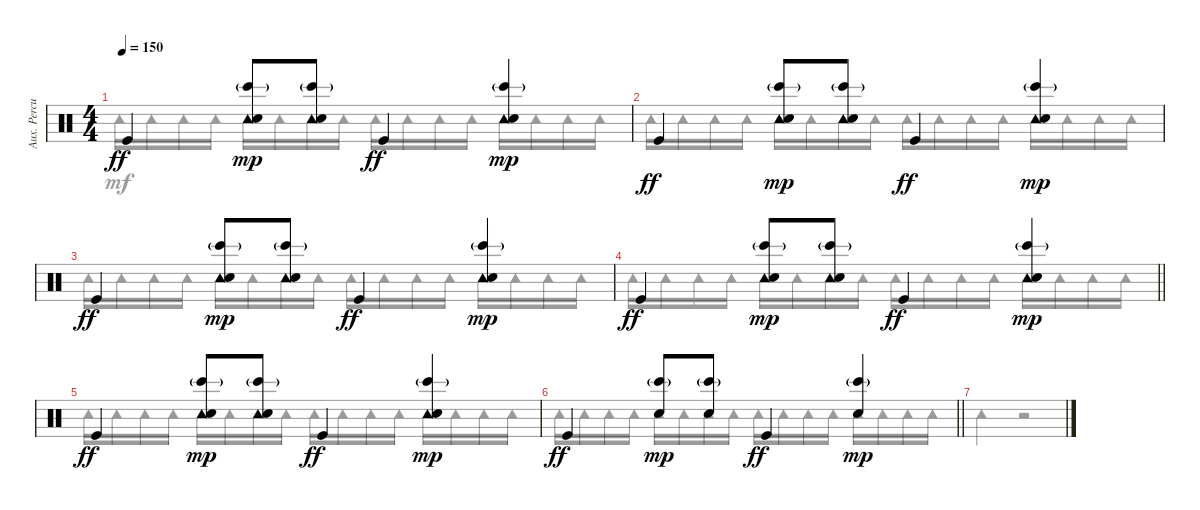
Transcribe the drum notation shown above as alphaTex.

\track ("Aux. Percussion" "Aux. Percu") {instrument percussion}
\staff {score}
\articulation defaults
\voice
\ts (4 4)
\tempo 150
\clef neutral
\ks c "Kick (hit)".4{dy ff}
("Tambourine (hit)" "Hand Clap (hit)" "Bongo High (hit)"{g}).8{dy mp} ("Tambourine (hit)" "Hand Clap (hit)" "Bongo High (hit)"{g}).8 "Kick (hit)".4{dy ff} ("Tambourine (hit)" "Hand Clap (hit)" "Bongo High (hit)"{g}).4{dy mp} |
"Kick (hit)".4{dy ff} ("Tambourine (hit)" "Hand Clap (hit)" "Bongo High (hit)"{g}).8{dy mp} ("Tambourine (hit)" "Hand Clap (hit)" "Bongo High (hit)"{g}).8 "Kick (hit)".4{dy ff} ("Tambourine (hit)" "Hand Clap (hit)" "Bongo High (hit)"{g}).4{dy mp} |
"Kick (hit)".4{dy ff} ("Tambourine (hit)" "Hand Clap (hit)" "Bongo High (hit)"{g}).8{dy mp} ("Tambourine (hit)" "Hand Clap (hit)" "Bongo High (hit)"{g}).8 "Kick (hit)".4{dy ff} ("Tambourine (hit)" "Hand Clap (hit)" "Bongo High (hit)"{g}).4{dy mp} |
\barLineRight lightlight "Kick (hit)".4{dy ff}
("Tambourine (hit)" "Hand Clap (hit)" "Bongo High (hit)"{g}).8{dy mp} ("Tambourine (hit)" "Hand Clap (hit)" "Bongo High (hit)"{g}).8 "Kick (hit)".4{dy ff} ("Tambourine (hit)" "Hand Clap (hit)" "Bongo High (hit)"{g}).4{dy mp} |
"Kick (hit)".4{dy ff} ("Tambourine (hit)" "Hand Clap (hit)" "Bongo High (hit)"{g}).8{dy mp} ("Tambourine (hit)" "Hand Clap (hit)" "Bongo High (hit)"{g}).8 "Kick (hit)".4{dy ff} ("Tambourine (hit)" "Hand Clap (hit)" "Bongo High (hit)"{g}).4{dy mp} |
\barLineRight lightlight "Kick (hit)".4{dy ff}
("Hand Clap (hit)" "Bongo High (hit)"{g}).8{dy mp} ("Hand Clap (hit)" "Bongo High (hit)"{g}).8 "Kick (hit)".4{dy ff} ("Hand Clap (hit)" "Bongo High (hit)"{g}).4{dy mp} |
|
|
|
|
|
|
|
\voice
\clef neutral
\ottava regular
\simile none
\ks c "Tambourine (hit)".16{dy mf} "Tambourine (hit)".16 "Tambourine (hit)".16 "Tambourine (hit)".16 "Tambourine (hit)".16 "Tambourine (hit)".16 "Tambourine (hit)".16 "Tambourine (hit)".16 "Tambourine (hit)".16 "Tambourine (hit)".16 "Tambourine (hit)".16 "Tambourine (hit)".16 "Tambourine (hit)".16 "Tambourine (hit)".16 "Tambourine (hit)".16 "Tambourine (hit)".16
|
"Tambourine (hit)".16 "Tambourine (hit)".16 "Tambourine (hit)".16 "Tambourine (hit)".16 "Tambourine (hit)".16 "Tambourine (hit)".16 "Tambourine (hit)".16 "Tambourine (hit)".16 "Tambourine (hit)".16 "Tambourine (hit)".16 "Tambourine (hit)".16 "Tambourine (hit)".16 "Tambourine (hit)".16 "Tambourine (hit)".16 "Tambourine (hit)".16 "Tambourine (hit)".16 |
"Tambourine (hit)".16 "Tambourine (hit)".16 "Tambourine (hit)".16 "Tambourine (hit)".16 "Tambourine (hit)".16 "Tambourine (hit)".16 "Tambourine (hit)".16 "Tambourine (hit)".16 "Tambourine (hit)".16 "Tambourine (hit)".16 "Tambourine (hit)".16 "Tambourine (hit)".16 "Tambourine (hit)".16 "Tambourine (hit)".16 "Tambourine (hit)".16 "Tambourine (hit)".16 |
\barLineRight lightlight "Tambourine (hit)".16 "Tambourine (hit)".16 "Tambourine (hit)".16 "Tambourine (hit)".16 "Tambourine (hit)".16 "Tambourine (hit)".16 "Tambourine (hit)".16 "Tambourine (hit)".16 "Tambourine (hit)".16 "Tambourine (hit)".16 "Tambourine (hit)".16 "Tambourine (hit)".16 "Tambourine (hit)".16 "Tambourine (hit)".16 "Tambourine (hit)".16 "Tambourine (hit)".16
|
"Tambourine (hit)".16 "Tambourine (hit)".16 "Tambourine (hit)".16 "Tambourine (hit)".16 "Tambourine (hit)".16 "Tambourine (hit)".16 "Tambourine (hit)".16 "Tambourine (hit)".16 "Tambourine (hit)".16 "Tambourine (hit)".16 "Tambourine (hit)".16 "Tambourine (hit)".16 "Tambourine (hit)".16 "Tambourine (hit)".16 "Tambourine (hit)".16 "Tambourine (hit)".16 |
\barLineRight lightlight "Tambourine (hit)".16 "Tambourine (hit)".16 "Tambourine (hit)".16 "Tambourine (hit)".16 "Tambourine (hit)".16 "Tambourine (hit)".16 "Tambourine (hit)".16 "Tambourine (hit)".16 "Tambourine (hit)".16 "Tambourine (hit)".16 "Tambourine (hit)".16 "Tambourine (hit)".16 "Tambourine (hit)".16 "Tambourine (hit)".16 "Tambourine (hit)".16 "Tambourine (hit)".16
|
"Tambourine (hit)".2 r.2 |
|
|
|
|
|
|
